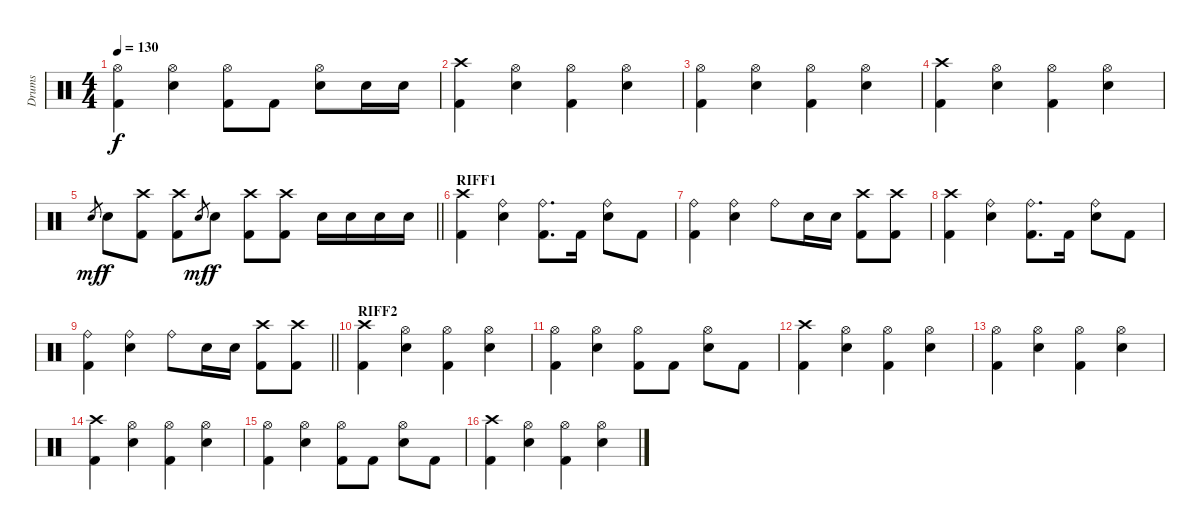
\track ("Drums" "Drums") {instrument percussion}
\staff {score}
\articulation defaults
\ts (4 4)
\tempo 130
\clef neutral
\ks c
("Hi-Hat (open)" "Kick (hit) 2").4{dy f} ("Hi-Hat (open)" "Electric Snare (hit)").4 ("Hi-Hat (open)" "Kick (hit) 2").8 "Kick (hit) 2".8 ("Hi-Hat (open)" "Electric Snare (hit)").8 "Electric Snare (hit)".16 "Electric Snare (hit)".16 |
("Crash high (hit)" "Kick (hit) 2").4 ("Hi-Hat (open)" "Electric Snare (hit)").4 ("Hi-Hat (open)" "Kick (hit) 2").4 ("Hi-Hat (open)" "Electric Snare (hit)").4 |
("Hi-Hat (open)" "Kick (hit) 2").4 ("Hi-Hat (open)" "Electric Snare (hit)").4 ("Hi-Hat (open)" "Kick (hit) 2").4 ("Hi-Hat (open)" "Electric Snare (hit)").4 |
("Crash high (hit)" "Kick (hit) 2").4 ("Hi-Hat (open)" "Electric Snare (hit)").4 ("Hi-Hat (open)" "Kick (hit) 2").4 ("Hi-Hat (open)" "Electric Snare (hit)").4 |
\barLineRight lightlight "Electric Snare (hit)".8{gr dy mf} "Electric Snare (hit)".8{dy f}
("Crash high (hit)" "Kick (hit) 2").8 ("Crash high (hit)" "Kick (hit) 2").8 "Electric Snare (hit)".8{gr dy mf} "Electric Snare (hit)".8{dy f} ("Crash high (hit)" "Kick (hit) 2").8 ("Crash high (hit)" "Kick (hit) 2").8 "Electric Snare (hit)".16 "Electric Snare (hit)".16 "Electric Snare (hit)".16 "Electric Snare (hit)".16 |
\section ("" "RIFF1")
("Crash high (hit)" "Kick (hit) 2").4 ("Ride (bell)" "Electric Snare (hit)").4 ("Ride (bell)" "Kick (hit) 2").8{d} "Kick (hit) 2".16 ("Ride (bell)" "Electric Snare (hit)").8 "Kick (hit) 2".8 |
("Ride (bell)" "Kick (hit) 2").4 ("Ride (bell)" "Electric Snare (hit)").4 "Ride (bell)".8 "Electric Snare (hit)".16 "Electric Snare (hit)".16 ("Crash high (hit)" "Kick (hit) 2").8 ("Crash high (hit)" "Kick (hit) 2").8 |
("Crash high (hit)" "Kick (hit) 2").4 ("Ride (bell)" "Electric Snare (hit)").4 ("Ride (bell)" "Kick (hit) 2").8{d} "Kick (hit) 2".16 ("Ride (bell)" "Electric Snare (hit)").8 "Kick (hit) 2".8 |
\barLineRight lightlight
("Ride (bell)" "Kick (hit) 2").4 ("Ride (bell)" "Electric Snare (hit)").4 "Ride (bell)".8 "Electric Snare (hit)".16 "Electric Snare (hit)".16 ("Crash high (hit)" "Kick (hit) 2").8 ("Crash high (hit)" "Kick (hit) 2").8 |
\section ("" "RIFF2")
("Crash high (hit)" "Kick (hit) 2").4 ("Hi-Hat (open)" "Electric Snare (hit)").4 ("Hi-Hat (open)" "Kick (hit) 2").4 ("Hi-Hat (open)" "Electric Snare (hit)").4 |
("Hi-Hat (open)" "Kick (hit) 2").4 ("Hi-Hat (open)" "Electric Snare (hit)").4 ("Hi-Hat (open)" "Kick (hit) 2").8 "Kick (hit) 2".8 ("Hi-Hat (open)" "Electric Snare (hit)").8 "Kick (hit) 2".8 |
("Crash high (hit)" "Kick (hit) 2").4 ("Hi-Hat (open)" "Electric Snare (hit)").4 ("Hi-Hat (open)" "Kick (hit) 2").4 ("Hi-Hat (open)" "Electric Snare (hit)").4 |
("Hi-Hat (open)" "Kick (hit) 2").4 ("Hi-Hat (open)" "Electric Snare (hit)").4 ("Hi-Hat (open)" "Kick (hit) 2").4 ("Hi-Hat (open)" "Electric Snare (hit)").4 |
("Crash high (hit)" "Kick (hit) 2").4 ("Hi-Hat (open)" "Electric Snare (hit)").4 ("Hi-Hat (open)" "Kick (hit) 2").4 ("Hi-Hat (open)" "Electric Snare (hit)").4 |
("Hi-Hat (open)" "Kick (hit) 2").4 ("Hi-Hat (open)" "Electric Snare (hit)").4 ("Hi-Hat (open)" "Kick (hit) 2").8 "Kick (hit) 2".8 ("Hi-Hat (open)" "Electric Snare (hit)").8 "Kick (hit) 2".8 |
("Crash high (hit)" "Kick (hit) 2").4 ("Hi-Hat (open)" "Electric Snare (hit)").4 ("Hi-Hat (open)" "Kick (hit) 2").4 ("Hi-Hat (open)" "Electric Snare (hit)").4
